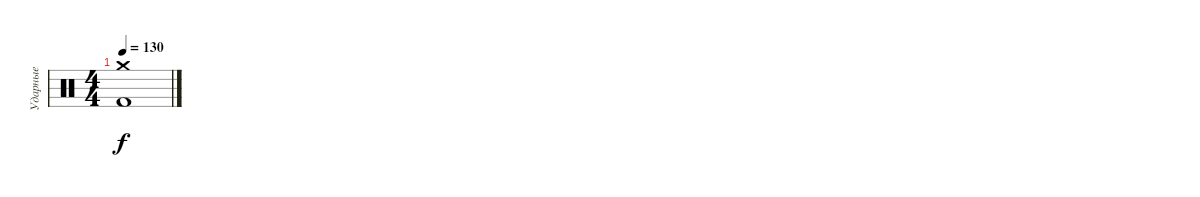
\track ("Ударные" "Ударные") {instrument percussion}
\staff {score}
\articulation defaults
\ts (4 4)
\tempo 130
\clef neutral
\ks c
("Crash medium (hit)" "Kick (hit) 2").1{dy f}
